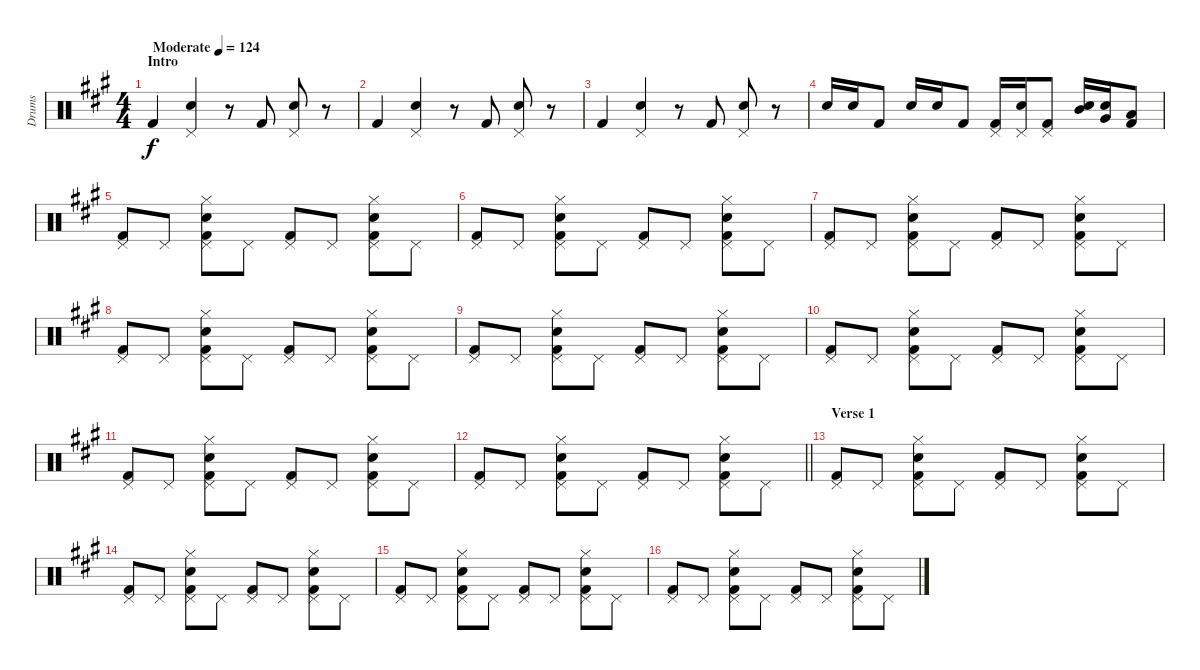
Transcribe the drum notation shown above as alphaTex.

\track ("Drums" "Drums") {instrument percussion}
\staff {score}
\articulation defaults
\ts (4 4)
\section ("" "Intro")
\tempo (124 "Moderate")
\clef neutral
\ks a "Kick (hit) 2".4{dy f}
("Pedal Hi-Hat (hit)" "Snare (hit) 2").4 r.8 "Kick (hit) 2".8 ("Pedal Hi-Hat (hit)" "Snare (hit) 2").8 r.8 |
"Kick (hit) 2".4 ("Pedal Hi-Hat (hit)" "Snare (hit) 2").4 r.8 "Kick (hit) 2".8 ("Pedal Hi-Hat (hit)" "Snare (hit) 2").8 r.8 |
"Kick (hit) 2".4 ("Pedal Hi-Hat (hit)" "Snare (hit) 2").4 r.8 "Kick (hit) 2".8 ("Pedal Hi-Hat (hit)" "Snare (hit) 2").8 r.8 |
"Snare (hit) 2".16 "Snare (hit) 2".16 "Kick (hit) 2".8 "Snare (hit) 2".16 "Snare (hit) 2".16 "Kick (hit) 2".8 ("Pedal Hi-Hat (hit)" "Kick (hit) 2").16 ("Pedal Hi-Hat (hit)" "Snare (hit) 2").16 ("Pedal Hi-Hat (hit)" "Kick (hit) 2").8 ("Mid Tom (hit)" "Snare (hit) 2").16 ("Very Low Tom (hit)" "Snare (hit) 2").16 ("Low Floor Tom (hit)" "Kick (hit) 2").8 |
("Pedal Hi-Hat (hit)" "Kick (hit) 2").8 "Pedal Hi-Hat (hit)".8 ("Hi-Hat (closed)" "Snare (hit) 2" "Pedal Hi-Hat (hit)" "Kick (hit) 2").8 "Pedal Hi-Hat (hit)".8 ("Pedal Hi-Hat (hit)" "Kick (hit) 2").8 "Pedal Hi-Hat (hit)".8 ("Hi-Hat (closed)" "Snare (hit) 2" "Pedal Hi-Hat (hit)" "Kick (hit) 2").8 "Pedal Hi-Hat (hit)".8 |
("Pedal Hi-Hat (hit)" "Kick (hit) 2").8 "Pedal Hi-Hat (hit)".8 ("Hi-Hat (closed)" "Snare (hit) 2" "Pedal Hi-Hat (hit)" "Kick (hit) 2").8 "Pedal Hi-Hat (hit)".8 ("Pedal Hi-Hat (hit)" "Kick (hit) 2").8 "Pedal Hi-Hat (hit)".8 ("Hi-Hat (closed)" "Snare (hit) 2" "Pedal Hi-Hat (hit)" "Kick (hit) 2").8 "Pedal Hi-Hat (hit)".8 |
("Pedal Hi-Hat (hit)" "Kick (hit) 2").8 "Pedal Hi-Hat (hit)".8 ("Hi-Hat (closed)" "Snare (hit) 2" "Pedal Hi-Hat (hit)" "Kick (hit) 2").8 "Pedal Hi-Hat (hit)".8 ("Pedal Hi-Hat (hit)" "Kick (hit) 2").8 "Pedal Hi-Hat (hit)".8 ("Hi-Hat (closed)" "Snare (hit) 2" "Pedal Hi-Hat (hit)" "Kick (hit) 2").8 "Pedal Hi-Hat (hit)".8 |
("Pedal Hi-Hat (hit)" "Kick (hit) 2").8 "Pedal Hi-Hat (hit)".8 ("Hi-Hat (closed)" "Snare (hit) 2" "Pedal Hi-Hat (hit)" "Kick (hit) 2").8 "Pedal Hi-Hat (hit)".8 ("Pedal Hi-Hat (hit)" "Kick (hit) 2").8 "Pedal Hi-Hat (hit)".8 ("Hi-Hat (closed)" "Snare (hit) 2" "Pedal Hi-Hat (hit)" "Kick (hit) 2").8 "Pedal Hi-Hat (hit)".8 |
("Pedal Hi-Hat (hit)" "Kick (hit) 2").8 "Pedal Hi-Hat (hit)".8 ("Hi-Hat (closed)" "Snare (hit) 2" "Pedal Hi-Hat (hit)" "Kick (hit) 2").8 "Pedal Hi-Hat (hit)".8 ("Pedal Hi-Hat (hit)" "Kick (hit) 2").8 "Pedal Hi-Hat (hit)".8 ("Hi-Hat (closed)" "Snare (hit) 2" "Pedal Hi-Hat (hit)" "Kick (hit) 2").8 "Pedal Hi-Hat (hit)".8 |
("Pedal Hi-Hat (hit)" "Kick (hit) 2").8 "Pedal Hi-Hat (hit)".8 ("Hi-Hat (closed)" "Snare (hit) 2" "Pedal Hi-Hat (hit)" "Kick (hit) 2").8 "Pedal Hi-Hat (hit)".8 ("Pedal Hi-Hat (hit)" "Kick (hit) 2").8 "Pedal Hi-Hat (hit)".8 ("Hi-Hat (closed)" "Snare (hit) 2" "Pedal Hi-Hat (hit)" "Kick (hit) 2").8 "Pedal Hi-Hat (hit)".8 |
("Pedal Hi-Hat (hit)" "Kick (hit) 2").8 "Pedal Hi-Hat (hit)".8 ("Hi-Hat (closed)" "Snare (hit) 2" "Pedal Hi-Hat (hit)" "Kick (hit) 2").8 "Pedal Hi-Hat (hit)".8 ("Pedal Hi-Hat (hit)" "Kick (hit) 2").8 "Pedal Hi-Hat (hit)".8 ("Hi-Hat (closed)" "Snare (hit) 2" "Pedal Hi-Hat (hit)" "Kick (hit) 2").8 "Pedal Hi-Hat (hit)".8 |
\barLineRight lightlight
("Pedal Hi-Hat (hit)" "Kick (hit) 2").8 "Pedal Hi-Hat (hit)".8 ("Hi-Hat (closed)" "Snare (hit) 2" "Pedal Hi-Hat (hit)" "Kick (hit) 2").8 "Pedal Hi-Hat (hit)".8 ("Pedal Hi-Hat (hit)" "Kick (hit) 2").8 "Pedal Hi-Hat (hit)".8 ("Hi-Hat (closed)" "Snare (hit) 2" "Pedal Hi-Hat (hit)" "Kick (hit) 2").8 "Pedal Hi-Hat (hit)".8 |
\section ("" "Verse 1")
("Pedal Hi-Hat (hit)" "Kick (hit) 2").8 "Pedal Hi-Hat (hit)".8 ("Hi-Hat (closed)" "Snare (hit) 2" "Pedal Hi-Hat (hit)" "Kick (hit) 2").8 "Pedal Hi-Hat (hit)".8 ("Pedal Hi-Hat (hit)" "Kick (hit) 2").8 "Pedal Hi-Hat (hit)".8 ("Hi-Hat (closed)" "Snare (hit) 2" "Pedal Hi-Hat (hit)" "Kick (hit) 2").8 "Pedal Hi-Hat (hit)".8 |
("Pedal Hi-Hat (hit)" "Kick (hit) 2").8 "Pedal Hi-Hat (hit)".8 ("Hi-Hat (closed)" "Snare (hit) 2" "Pedal Hi-Hat (hit)" "Kick (hit) 2").8 "Pedal Hi-Hat (hit)".8 ("Pedal Hi-Hat (hit)" "Kick (hit) 2").8 "Pedal Hi-Hat (hit)".8 ("Hi-Hat (closed)" "Snare (hit) 2" "Pedal Hi-Hat (hit)" "Kick (hit) 2").8 "Pedal Hi-Hat (hit)".8 |
("Pedal Hi-Hat (hit)" "Kick (hit) 2").8 "Pedal Hi-Hat (hit)".8 ("Hi-Hat (closed)" "Snare (hit) 2" "Pedal Hi-Hat (hit)" "Kick (hit) 2").8 "Pedal Hi-Hat (hit)".8 ("Pedal Hi-Hat (hit)" "Kick (hit) 2").8 "Pedal Hi-Hat (hit)".8 ("Hi-Hat (closed)" "Snare (hit) 2" "Pedal Hi-Hat (hit)" "Kick (hit) 2").8 "Pedal Hi-Hat (hit)".8 |
("Pedal Hi-Hat (hit)" "Kick (hit) 2").8 "Pedal Hi-Hat (hit)".8 ("Hi-Hat (closed)" "Snare (hit) 2" "Pedal Hi-Hat (hit)" "Kick (hit) 2").8 "Pedal Hi-Hat (hit)".8 ("Pedal Hi-Hat (hit)" "Kick (hit) 2").8 "Pedal Hi-Hat (hit)".8 ("Hi-Hat (closed)" "Snare (hit) 2" "Pedal Hi-Hat (hit)" "Kick (hit) 2").8 "Pedal Hi-Hat (hit)".8
